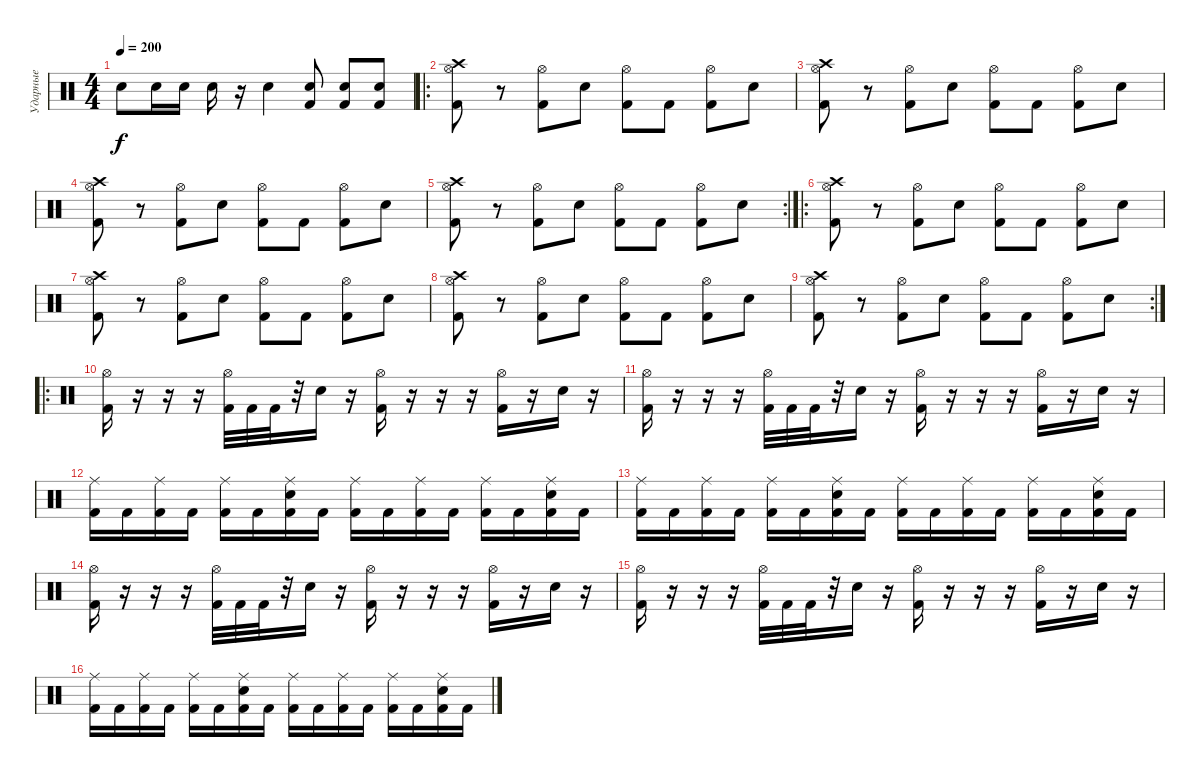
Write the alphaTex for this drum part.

\track ("Ударные" "Ударные") {instrument percussion}
\staff {score}
\articulation defaults
\ts (4 4)
\tempo 200
\clef neutral
\ks c "Electric Snare (hit)".8{dy f} "Electric Snare (hit)".16 "Electric Snare (hit)".16 "Electric Snare (hit)".16
r.16 "Electric Snare (hit)".4 ("Electric Snare (hit)" "Kick (hit) 2").8 ("Electric Snare (hit)" "Kick (hit) 2").8 ("Electric Snare (hit)" "Kick (hit) 2").8 |
\ro
("Kick (hit) 2" "Hi-Hat (open)" "Crash high (hit)").8 r.8 ("Kick (hit) 2" "Hi-Hat (open)").8 "Electric Snare (hit)".8 ("Kick (hit) 2" "Hi-Hat (open)").8 "Kick (hit) 2".8 ("Kick (hit) 2" "Hi-Hat (open)").8 "Electric Snare (hit)".8 |
("Kick (hit) 2" "Hi-Hat (open)" "Crash high (hit)").8 r.8 ("Kick (hit) 2" "Hi-Hat (open)").8 "Electric Snare (hit)".8 ("Kick (hit) 2" "Hi-Hat (open)").8 "Kick (hit) 2".8 ("Kick (hit) 2" "Hi-Hat (open)").8 "Electric Snare (hit)".8 |
("Kick (hit) 2" "Hi-Hat (open)" "Crash high (hit)").8 r.8 ("Kick (hit) 2" "Hi-Hat (open)").8 "Electric Snare (hit)".8 ("Kick (hit) 2" "Hi-Hat (open)").8 "Kick (hit) 2".8 ("Kick (hit) 2" "Hi-Hat (open)").8 "Electric Snare (hit)".8 |
\rc 2
("Kick (hit) 2" "Hi-Hat (open)" "Crash high (hit)").8 r.8 ("Kick (hit) 2" "Hi-Hat (open)").8 "Electric Snare (hit)".8 ("Kick (hit) 2" "Hi-Hat (open)").8 "Kick (hit) 2".8 ("Kick (hit) 2" "Hi-Hat (open)").8 "Electric Snare (hit)".8 |
\ro
("Kick (hit) 2" "Hi-Hat (open)" "Crash high (hit)").8 r.8 ("Kick (hit) 2" "Hi-Hat (open)").8 "Electric Snare (hit)".8 ("Kick (hit) 2" "Hi-Hat (open)").8 "Kick (hit) 2".8 ("Kick (hit) 2" "Hi-Hat (open)").8 "Electric Snare (hit)".8 |
("Kick (hit) 2" "Hi-Hat (open)" "Crash high (hit)").8 r.8 ("Kick (hit) 2" "Hi-Hat (open)").8 "Electric Snare (hit)".8 ("Kick (hit) 2" "Hi-Hat (open)").8 "Kick (hit) 2".8 ("Kick (hit) 2" "Hi-Hat (open)").8 "Electric Snare (hit)".8 |
("Kick (hit) 2" "Hi-Hat (open)" "Crash high (hit)").8 r.8 ("Kick (hit) 2" "Hi-Hat (open)").8 "Electric Snare (hit)".8 ("Kick (hit) 2" "Hi-Hat (open)").8 "Kick (hit) 2".8 ("Kick (hit) 2" "Hi-Hat (open)").8 "Electric Snare (hit)".8 |
\rc 2
("Kick (hit) 2" "Hi-Hat (open)" "Crash high (hit)").8 r.8 ("Kick (hit) 2" "Hi-Hat (open)").8 "Electric Snare (hit)".8 ("Kick (hit) 2" "Hi-Hat (open)").8 "Kick (hit) 2".8 ("Kick (hit) 2" "Hi-Hat (open)").8 "Electric Snare (hit)".8 |
\ro
("Kick (hit) 2" "Hi-Hat (open)").16 r.16 r.16 r.16 ("Kick (hit) 2" "Hi-Hat (open)").32 "Kick (hit) 2".32 "Kick (hit) 2".32 r.32 "Electric Snare (hit)".16 r.16 ("Kick (hit) 2" "Hi-Hat (open)").16 r.16 r.16 r.16 ("Kick (hit) 2" "Hi-Hat (open)").16 r.16 "Electric Snare (hit)".16 r.16 |
("Kick (hit) 2" "Hi-Hat (open)").16 r.16 r.16 r.16 ("Kick (hit) 2" "Hi-Hat (open)").32 "Kick (hit) 2".32 "Kick (hit) 2".32 r.32 "Electric Snare (hit)".16 r.16 ("Kick (hit) 2" "Hi-Hat (open)").16 r.16 r.16 r.16 ("Kick (hit) 2" "Hi-Hat (open)").16 r.16 "Electric Snare (hit)".16 r.16 |
("Kick (hit) 2" "Ride (middle)").16 "Kick (hit) 2".16 ("Kick (hit) 2" "Ride (middle)").16 "Kick (hit) 2".16 ("Kick (hit) 2" "Ride (middle)").16 "Kick (hit) 2".16 ("Kick (hit) 2" "Electric Snare (hit)" "Ride (middle)").16 "Kick (hit) 2".16 ("Kick (hit) 2" "Ride (middle)").16 "Kick (hit) 2".16 ("Kick (hit) 2" "Ride (middle)").16 "Kick (hit) 2".16 ("Kick (hit) 2" "Ride (middle)").16 "Kick (hit) 2".16 ("Kick (hit) 2" "Electric Snare (hit)" "Ride (middle)").16 "Kick (hit) 2".16 |
("Kick (hit) 2" "Ride (middle)").16 "Kick (hit) 2".16 ("Kick (hit) 2" "Ride (middle)").16 "Kick (hit) 2".16 ("Kick (hit) 2" "Ride (middle)").16 "Kick (hit) 2".16 ("Kick (hit) 2" "Electric Snare (hit)" "Ride (middle)").16 "Kick (hit) 2".16 ("Kick (hit) 2" "Ride (middle)").16 "Kick (hit) 2".16 ("Kick (hit) 2" "Ride (middle)").16 "Kick (hit) 2".16 ("Kick (hit) 2" "Ride (middle)").16 "Kick (hit) 2".16 ("Kick (hit) 2" "Electric Snare (hit)" "Ride (middle)").16 "Kick (hit) 2".16 |
("Kick (hit) 2" "Hi-Hat (open)").16 r.16 r.16 r.16 ("Kick (hit) 2" "Hi-Hat (open)").32 "Kick (hit) 2".32 "Kick (hit) 2".32 r.32 "Electric Snare (hit)".16 r.16 ("Kick (hit) 2" "Hi-Hat (open)").16 r.16 r.16 r.16 ("Kick (hit) 2" "Hi-Hat (open)").16 r.16 "Electric Snare (hit)".16 r.16 |
("Kick (hit) 2" "Hi-Hat (open)").16 r.16 r.16 r.16 ("Kick (hit) 2" "Hi-Hat (open)").32 "Kick (hit) 2".32 "Kick (hit) 2".32 r.32 "Electric Snare (hit)".16 r.16 ("Kick (hit) 2" "Hi-Hat (open)").16 r.16 r.16 r.16 ("Kick (hit) 2" "Hi-Hat (open)").16 r.16 "Electric Snare (hit)".16 r.16 |
("Kick (hit) 2" "Ride (middle)").16 "Kick (hit) 2".16 ("Kick (hit) 2" "Ride (middle)").16 "Kick (hit) 2".16 ("Kick (hit) 2" "Ride (middle)").16 "Kick (hit) 2".16 ("Kick (hit) 2" "Electric Snare (hit)" "Ride (middle)").16 "Kick (hit) 2".16 ("Kick (hit) 2" "Ride (middle)").16 "Kick (hit) 2".16 ("Kick (hit) 2" "Ride (middle)").16 "Kick (hit) 2".16 ("Kick (hit) 2" "Ride (middle)").16 "Kick (hit) 2".16 ("Kick (hit) 2" "Electric Snare (hit)" "Ride (middle)").16 "Kick (hit) 2".16
